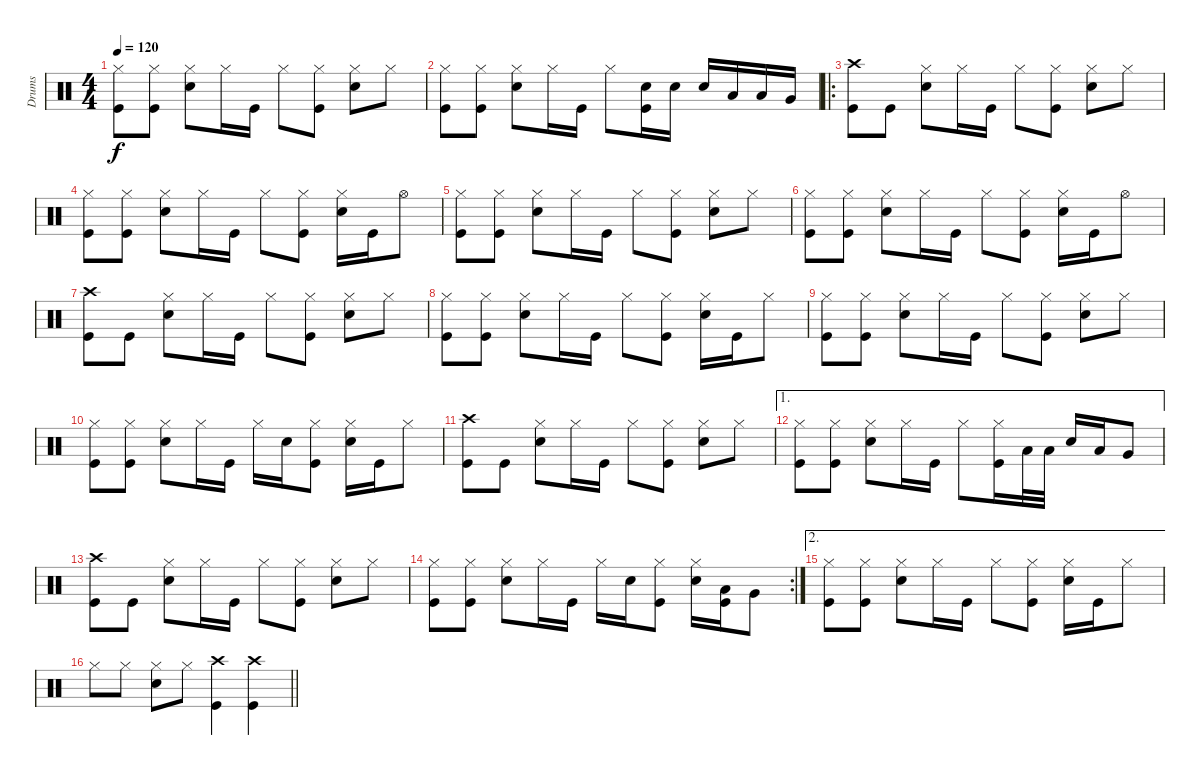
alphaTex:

\track ("Drums" "Drums") {instrument percussion}
\staff {score}
\articulation defaults
\ts (4 4)
\tempo 120
\clef neutral
\ks c
("Kick (hit)" "Hi-Hat (closed)").8{dy f} ("Kick (hit)" "Hi-Hat (closed)").8 ("Snare (hit) 2" "Hi-Hat (closed)").8 "Hi-Hat (closed)".16 "Kick (hit)".16 "Hi-Hat (closed)".8 ("Kick (hit)" "Hi-Hat (closed)").8 ("Snare (hit) 2" "Hi-Hat (closed)").8 "Hi-Hat (closed)".8 |
("Kick (hit)" "Hi-Hat (closed)").8 ("Kick (hit)" "Hi-Hat (closed)").8 ("Snare (hit) 2" "Hi-Hat (closed)").8 "Hi-Hat (closed)".16 "Kick (hit)".16 "Hi-Hat (closed)".8 ("Snare (hit) 2" "Kick (hit)").16 "Snare (hit) 2".16 "Snare (hit) 2".16 "Low Tom (hit)".16 "Low Tom (hit)".16 "Very Low Tom (hit)".16 |
\ro
("Crash high (hit)" "Kick (hit)").8 "Kick (hit)".8 ("Snare (hit) 2" "Hi-Hat (closed)").8 "Hi-Hat (closed)".16 "Kick (hit)".16 "Hi-Hat (closed)".8 ("Kick (hit)" "Hi-Hat (closed)").8 ("Snare (hit) 2" "Hi-Hat (closed)").8 "Hi-Hat (closed)".8 |
("Hi-Hat (closed)" "Kick (hit)").8 ("Hi-Hat (closed)" "Kick (hit)").8 ("Hi-Hat (closed)" "Snare (hit) 2").8 "Hi-Hat (closed)".16 "Kick (hit)".16 "Hi-Hat (closed)".8 ("Hi-Hat (closed)" "Kick (hit)").8 ("Snare (hit) 2" "Hi-Hat (closed)").16 "Kick (hit)".16 "Hi-Hat (open)".8 |
("Kick (hit)" "Hi-Hat (closed)").8 ("Kick (hit)" "Hi-Hat (closed)").8 ("Snare (hit) 2" "Hi-Hat (closed)").8 "Hi-Hat (closed)".16 "Kick (hit)".16 "Hi-Hat (closed)".8 ("Kick (hit)" "Hi-Hat (closed)").8 ("Snare (hit) 2" "Hi-Hat (closed)").8 "Hi-Hat (closed)".8 |
("Hi-Hat (closed)" "Kick (hit)").8 ("Hi-Hat (closed)" "Kick (hit)").8 ("Hi-Hat (closed)" "Snare (hit) 2").8 "Hi-Hat (closed)".16 "Kick (hit)".16 "Hi-Hat (closed)".8 ("Hi-Hat (closed)" "Kick (hit)").8 ("Snare (hit) 2" "Hi-Hat (closed)").16 "Kick (hit)".16 "Hi-Hat (open)".8 |
("Crash high (hit)" "Kick (hit)").8 "Kick (hit)".8 ("Snare (hit) 2" "Hi-Hat (closed)").8 "Hi-Hat (closed)".16 "Kick (hit)".16 "Hi-Hat (closed)".8 ("Kick (hit)" "Hi-Hat (closed)").8 ("Snare (hit) 2" "Hi-Hat (closed)").8 "Hi-Hat (closed)".8 |
("Hi-Hat (closed)" "Kick (hit)").8 ("Hi-Hat (closed)" "Kick (hit)").8 ("Hi-Hat (closed)" "Snare (hit) 2").8 "Hi-Hat (closed)".16 "Kick (hit)".16 "Hi-Hat (closed)".8 ("Hi-Hat (closed)" "Kick (hit)").8 ("Snare (hit) 2" "Hi-Hat (closed)").16 "Kick (hit)".16 "Hi-Hat (closed)".8 |
("Kick (hit)" "Hi-Hat (closed)").8 ("Kick (hit)" "Hi-Hat (closed)").8 ("Snare (hit) 2" "Hi-Hat (closed)").8 "Hi-Hat (closed)".16 "Kick (hit)".16 "Hi-Hat (closed)".8 ("Kick (hit)" "Hi-Hat (closed)").8 ("Snare (hit) 2" "Hi-Hat (closed)").8 "Hi-Hat (closed)".8 |
("Hi-Hat (closed)" "Kick (hit)").8 ("Hi-Hat (closed)" "Kick (hit)").8 ("Hi-Hat (closed)" "Snare (hit) 2").8 "Hi-Hat (closed)".16 "Kick (hit)".16 "Hi-Hat (closed)".16 "Snare (hit) 2".16 ("Hi-Hat (closed)" "Kick (hit)").8 ("Snare (hit) 2" "Hi-Hat (closed)").16 "Kick (hit)".16 "Hi-Hat (closed)".8 |
("Crash high (hit)" "Kick (hit)").8 "Kick (hit)".8 ("Snare (hit) 2" "Hi-Hat (closed)").8 "Hi-Hat (closed)".16 "Kick (hit)".16 "Hi-Hat (closed)".8 ("Kick (hit)" "Hi-Hat (closed)").8 ("Snare (hit) 2" "Hi-Hat (closed)").8 "Hi-Hat (closed)".8 |
\ae 1
("Hi-Hat (closed)" "Kick (hit)").8 ("Hi-Hat (closed)" "Kick (hit)").8 ("Hi-Hat (closed)" "Snare (hit) 2").8 "Hi-Hat (closed)".16 "Kick (hit)".16 "Hi-Hat (closed)".8 ("Hi-Hat (closed)" "Kick (hit)").16 "Low Tom (hit)".32 "Low Tom (hit)".32 "Snare (hit) 2".16 "Low Tom (hit)".16 "Very Low Tom (hit)".8 |
("Crash high (hit)" "Kick (hit)").8 "Kick (hit)".8 ("Snare (hit) 2" "Hi-Hat (closed)").8 "Hi-Hat (closed)".16 "Kick (hit)".16 "Hi-Hat (closed)".8 ("Kick (hit)" "Hi-Hat (closed)").8 ("Snare (hit) 2" "Hi-Hat (closed)").8 "Hi-Hat (closed)".8 |
\rc 2
("Hi-Hat (closed)" "Kick (hit)").8 ("Hi-Hat (closed)" "Kick (hit)").8 ("Hi-Hat (closed)" "Snare (hit) 2").8 "Hi-Hat (closed)".16 "Kick (hit)".16 "Hi-Hat (closed)".16 "Snare (hit) 2".16 ("Hi-Hat (closed)" "Kick (hit)").8 ("Hi-Hat (closed)" "Snare (hit) 2").16 ("Low Tom (hit)" "Kick (hit)").16 "Very Low Tom (hit)".8 |
\ae 2
("Hi-Hat (closed)" "Kick (hit)").8 ("Hi-Hat (closed)" "Kick (hit)").8 ("Hi-Hat (closed)" "Snare (hit) 2").8 "Hi-Hat (closed)".16 "Kick (hit)".16 "Hi-Hat (closed)".8 ("Hi-Hat (closed)" "Kick (hit)").8 ("Snare (hit) 2" "Hi-Hat (closed)").16 "Kick (hit)".16 "Hi-Hat (closed)".8 |
\barLineRight lightlight "Hi-Hat (closed)".8 "Hi-Hat (closed)".8
("Hi-Hat (closed)" "Snare (hit) 2").8 "Hi-Hat (closed)".8 ("Crash high (hit)" "Kick (hit)").4 ("Crash high (hit)" "Kick (hit)").4
